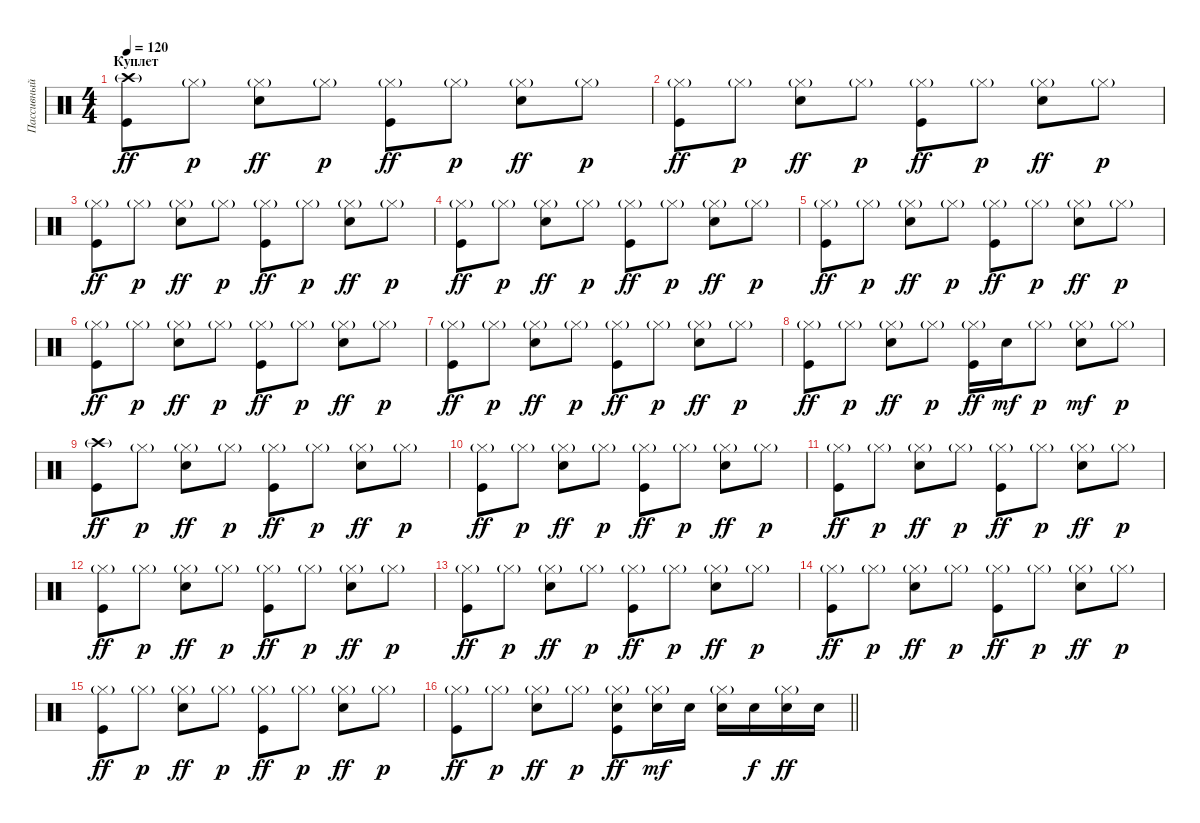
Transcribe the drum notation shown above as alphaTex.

\track ("Пассивный ударник" "Пассивный ") {instrument percussion}
\staff {score}
\articulation defaults
\ts (4 4)
\section ("" "Куплет")
\tempo 120
\clef neutral
\ks c
("Crash high (hit)"{g} "Kick (hit)").8{dy ff} "Hi-Hat (closed)"{g}.8{dy p} ("Hi-Hat (closed)"{g} "Electric Snare (hit)").8{dy ff} "Hi-Hat (closed)"{g}.8{dy p} ("Hi-Hat (closed)"{g} "Kick (hit)").8{dy ff} "Hi-Hat (closed)"{g}.8{dy p} ("Hi-Hat (closed)"{g} "Electric Snare (hit)").8{dy ff} "Hi-Hat (closed)"{g}.8{dy p} |
("Hi-Hat (closed)"{g} "Kick (hit)").8{dy ff} "Hi-Hat (closed)"{g}.8{dy p} ("Hi-Hat (closed)"{g} "Electric Snare (hit)").8{dy ff} "Hi-Hat (closed)"{g}.8{dy p} ("Hi-Hat (closed)"{g} "Kick (hit)").8{dy ff} "Hi-Hat (closed)"{g}.8{dy p} ("Hi-Hat (closed)"{g} "Electric Snare (hit)").8{dy ff} "Hi-Hat (closed)"{g}.8{dy p} |
("Hi-Hat (closed)"{g} "Kick (hit)").8{dy ff} "Hi-Hat (closed)"{g}.8{dy p} ("Hi-Hat (closed)"{g} "Electric Snare (hit)").8{dy ff} "Hi-Hat (closed)"{g}.8{dy p} ("Hi-Hat (closed)"{g} "Kick (hit)").8{dy ff} "Hi-Hat (closed)"{g}.8{dy p} ("Hi-Hat (closed)"{g} "Electric Snare (hit)").8{dy ff} "Hi-Hat (closed)"{g}.8{dy p} |
("Hi-Hat (closed)"{g} "Kick (hit)").8{dy ff} "Hi-Hat (closed)"{g}.8{dy p} ("Hi-Hat (closed)"{g} "Electric Snare (hit)").8{dy ff} "Hi-Hat (closed)"{g}.8{dy p} ("Hi-Hat (closed)"{g} "Kick (hit)").8{dy ff} "Hi-Hat (closed)"{g}.8{dy p} ("Hi-Hat (closed)"{g} "Electric Snare (hit)").8{dy ff} "Hi-Hat (closed)"{g}.8{dy p} |
("Hi-Hat (closed)"{g} "Kick (hit)").8{dy ff} "Hi-Hat (closed)"{g}.8{dy p} ("Hi-Hat (closed)"{g} "Electric Snare (hit)").8{dy ff} "Hi-Hat (closed)"{g}.8{dy p} ("Hi-Hat (closed)"{g} "Kick (hit)").8{dy ff} "Hi-Hat (closed)"{g}.8{dy p} ("Hi-Hat (closed)"{g} "Electric Snare (hit)").8{dy ff} "Hi-Hat (closed)"{g}.8{dy p} |
("Hi-Hat (closed)"{g} "Kick (hit)").8{dy ff} "Hi-Hat (closed)"{g}.8{dy p} ("Hi-Hat (closed)"{g} "Electric Snare (hit)").8{dy ff} "Hi-Hat (closed)"{g}.8{dy p} ("Hi-Hat (closed)"{g} "Kick (hit)").8{dy ff} "Hi-Hat (closed)"{g}.8{dy p} ("Hi-Hat (closed)"{g} "Electric Snare (hit)").8{dy ff} "Hi-Hat (closed)"{g}.8{dy p} |
("Hi-Hat (closed)"{g} "Kick (hit)").8{dy ff} "Hi-Hat (closed)"{g}.8{dy p} ("Hi-Hat (closed)"{g} "Electric Snare (hit)").8{dy ff} "Hi-Hat (closed)"{g}.8{dy p} ("Hi-Hat (closed)"{g} "Kick (hit)").8{dy ff} "Hi-Hat (closed)"{g}.8{dy p} ("Hi-Hat (closed)"{g} "Electric Snare (hit)").8{dy ff} "Hi-Hat (closed)"{g}.8{dy p} |
("Hi-Hat (closed)"{g} "Kick (hit)").8{dy ff} "Hi-Hat (closed)"{g}.8{dy p} ("Hi-Hat (closed)"{g} "Electric Snare (hit)").8{dy ff} "Hi-Hat (closed)"{g}.8{dy p} ("Hi-Hat (closed)"{g} "Kick (hit)").16{dy ff} "Electric Snare (hit)".16{dy mf} "Hi-Hat (closed)"{g}.8{dy p} ("Hi-Hat (closed)"{g} "Electric Snare (hit)").8{dy mf} "Hi-Hat (closed)"{g}.8{dy p} |
("Crash high (hit)"{g} "Kick (hit)").8{dy ff} "Hi-Hat (closed)"{g}.8{dy p} ("Hi-Hat (closed)"{g} "Electric Snare (hit)").8{dy ff} "Hi-Hat (closed)"{g}.8{dy p} ("Hi-Hat (closed)"{g} "Kick (hit)").8{dy ff} "Hi-Hat (closed)"{g}.8{dy p} ("Hi-Hat (closed)"{g} "Electric Snare (hit)").8{dy ff} "Hi-Hat (closed)"{g}.8{dy p} |
("Hi-Hat (closed)"{g} "Kick (hit)").8{dy ff} "Hi-Hat (closed)"{g}.8{dy p} ("Hi-Hat (closed)"{g} "Electric Snare (hit)").8{dy ff} "Hi-Hat (closed)"{g}.8{dy p} ("Hi-Hat (closed)"{g} "Kick (hit)").8{dy ff} "Hi-Hat (closed)"{g}.8{dy p} ("Hi-Hat (closed)"{g} "Electric Snare (hit)").8{dy ff} "Hi-Hat (closed)"{g}.8{dy p} |
("Hi-Hat (closed)"{g} "Kick (hit)").8{dy ff} "Hi-Hat (closed)"{g}.8{dy p} ("Hi-Hat (closed)"{g} "Electric Snare (hit)").8{dy ff} "Hi-Hat (closed)"{g}.8{dy p} ("Hi-Hat (closed)"{g} "Kick (hit)").8{dy ff} "Hi-Hat (closed)"{g}.8{dy p} ("Hi-Hat (closed)"{g} "Electric Snare (hit)").8{dy ff} "Hi-Hat (closed)"{g}.8{dy p} |
("Hi-Hat (closed)"{g} "Kick (hit)").8{dy ff} "Hi-Hat (closed)"{g}.8{dy p} ("Hi-Hat (closed)"{g} "Electric Snare (hit)").8{dy ff} "Hi-Hat (closed)"{g}.8{dy p} ("Hi-Hat (closed)"{g} "Kick (hit)").8{dy ff} "Hi-Hat (closed)"{g}.8{dy p} ("Hi-Hat (closed)"{g} "Electric Snare (hit)").8{dy ff} "Hi-Hat (closed)"{g}.8{dy p} |
("Hi-Hat (closed)"{g} "Kick (hit)").8{dy ff} "Hi-Hat (closed)"{g}.8{dy p} ("Hi-Hat (closed)"{g} "Electric Snare (hit)").8{dy ff} "Hi-Hat (closed)"{g}.8{dy p} ("Hi-Hat (closed)"{g} "Kick (hit)").8{dy ff} "Hi-Hat (closed)"{g}.8{dy p} ("Hi-Hat (closed)"{g} "Electric Snare (hit)").8{dy ff} "Hi-Hat (closed)"{g}.8{dy p} |
("Hi-Hat (closed)"{g} "Kick (hit)").8{dy ff} "Hi-Hat (closed)"{g}.8{dy p} ("Hi-Hat (closed)"{g} "Electric Snare (hit)").8{dy ff} "Hi-Hat (closed)"{g}.8{dy p} ("Hi-Hat (closed)"{g} "Kick (hit)").8{dy ff} "Hi-Hat (closed)"{g}.8{dy p} ("Hi-Hat (closed)"{g} "Electric Snare (hit)").8{dy ff} "Hi-Hat (closed)"{g}.8{dy p} |
("Hi-Hat (closed)"{g} "Kick (hit)").8{dy ff} "Hi-Hat (closed)"{g}.8{dy p} ("Hi-Hat (closed)"{g} "Electric Snare (hit)").8{dy ff} "Hi-Hat (closed)"{g}.8{dy p} ("Hi-Hat (closed)"{g} "Kick (hit)").8{dy ff} "Hi-Hat (closed)"{g}.8{dy p} ("Hi-Hat (closed)"{g} "Electric Snare (hit)").8{dy ff} "Hi-Hat (closed)"{g}.8{dy p} |
\barLineRight lightlight
("Hi-Hat (closed)"{g} "Kick (hit)").8{dy ff} "Hi-Hat (closed)"{g}.8{dy p} ("Hi-Hat (closed)"{g} "Electric Snare (hit)").8{dy ff} "Hi-Hat (closed)"{g}.8{dy p} ("Hi-Hat (closed)"{g} "Electric Snare (hit)" "Kick (hit)").8{dy ff} ("Hi-Hat (closed)"{g} "Electric Snare (hit)").16{dy mf} "Electric Snare (hit)".16 ("Hi-Hat (closed)"{g} "Electric Snare (hit)").16 "Electric Snare (hit)".16{dy f} ("Hi-Hat (closed)"{g} "Electric Snare (hit)").16{dy ff} "Electric Snare (hit)".16
